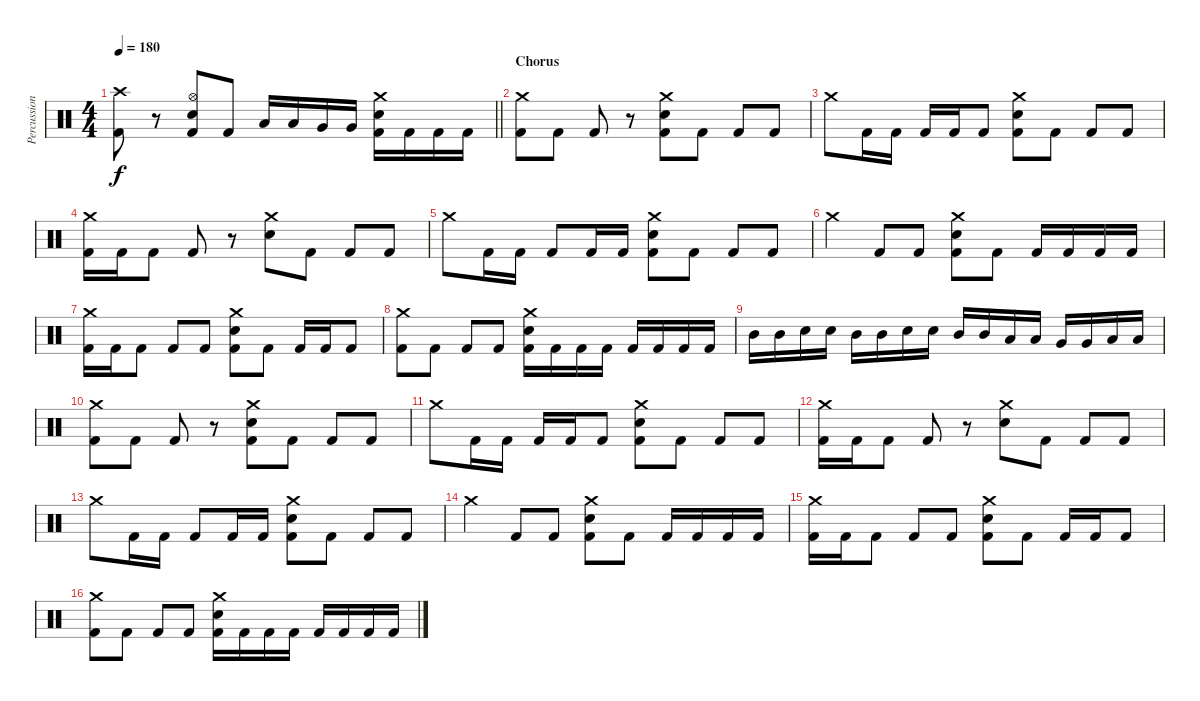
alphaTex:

\track ("Percussion" "Percussion") {instrument percussion}
\staff {score}
\articulation defaults
\ts (4 4)
\tempo 180
\clef neutral
\barLineRight lightlight
\ks c
("Crash high (hit)" "Kick (hit) 2").8{dy f} r.8 ("Hi-Hat (open)" "Electric Snare (hit)" "Kick (hit) 2").8 "Kick (hit) 2".8 "Low Tom (hit)".16 "Low Tom (hit)".16 "Very Low Tom (hit)".16 "Very Low Tom (hit)".16 ("Crash medium (hit)" "Electric Snare (hit)" "Kick (hit) 2").16 "Kick (hit) 2".16 "Kick (hit) 2".16 "Kick (hit) 2".16 |
\section ("" "Chorus")
("Crash medium (hit)" "Kick (hit) 2").8 "Kick (hit) 2".8 "Kick (hit) 2".8 r.8 ("Crash medium (hit)" "Electric Snare (hit)" "Kick (hit) 2").8 "Kick (hit) 2".8 "Kick (hit) 2".8 "Kick (hit) 2".8 |
"Crash medium (hit)".8 "Kick (hit) 2".16 "Kick (hit) 2".16 "Kick (hit) 2".16 "Kick (hit) 2".16 "Kick (hit) 2".8 ("Crash medium (hit)" "Electric Snare (hit)" "Kick (hit) 2").8 "Kick (hit) 2".8 "Kick (hit) 2".8 "Kick (hit) 2".8 |
("Crash medium (hit)" "Kick (hit) 2").16 "Kick (hit) 2".16 "Kick (hit) 2".8 "Kick (hit) 2".8 r.8 ("Crash medium (hit)" "Electric Snare (hit)").8 "Kick (hit) 2".8 "Kick (hit) 2".8 "Kick (hit) 2".8 |
"Crash medium (hit)".8 "Kick (hit) 2".16 "Kick (hit) 2".16 "Kick (hit) 2".8 "Kick (hit) 2".16 "Kick (hit) 2".16 ("Crash medium (hit)" "Electric Snare (hit)" "Kick (hit) 2").8 "Kick (hit) 2".8 "Kick (hit) 2".8 "Kick (hit) 2".8 |
"Crash medium (hit)".4 "Kick (hit) 2".8 "Kick (hit) 2".8 ("Crash medium (hit)" "Electric Snare (hit)" "Kick (hit) 2").8 "Kick (hit) 2".8 "Kick (hit) 2".16 "Kick (hit) 2".16 "Kick (hit) 2".16 "Kick (hit) 2".16 |
("Crash medium (hit)" "Kick (hit) 2").16 "Kick (hit) 2".16 "Kick (hit) 2".8 "Kick (hit) 2".8 "Kick (hit) 2".8 ("Crash medium (hit)" "Electric Snare (hit)" "Kick (hit) 2").8 "Kick (hit) 2".8 "Kick (hit) 2".16 "Kick (hit) 2".16 "Kick (hit) 2".8 |
("Crash medium (hit)" "Kick (hit) 2").8 "Kick (hit) 2".8 "Kick (hit) 2".8 "Kick (hit) 2".8 ("Crash medium (hit)" "Electric Snare (hit)" "Kick (hit) 2").16 "Kick (hit) 2".16 "Kick (hit) 2".16 "Kick (hit) 2".16 "Kick (hit) 2".16 "Kick (hit) 2".16 "Kick (hit) 2".16 "Kick (hit) 2".16 |
"Mid Tom (hit)".16 "Mid Tom (hit)".16 "Electric Snare (hit)".16 "Electric Snare (hit)".16 "Mid Tom (hit)".16 "Mid Tom (hit)".16 "Electric Snare (hit)".16 "Electric Snare (hit)".16 "Mid Tom (hit)".16 "Mid Tom (hit)".16 "Low Tom (hit)".16 "Low Tom (hit)".16 "Very Low Tom (hit)".16 "Very Low Tom (hit)".16 "Low Floor Tom (hit)".16 "Low Floor Tom (hit)".16 |
("Crash medium (hit)" "Kick (hit) 2").8 "Kick (hit) 2".8 "Kick (hit) 2".8 r.8 ("Crash medium (hit)" "Electric Snare (hit)" "Kick (hit) 2").8 "Kick (hit) 2".8 "Kick (hit) 2".8 "Kick (hit) 2".8 |
"Crash medium (hit)".8 "Kick (hit) 2".16 "Kick (hit) 2".16 "Kick (hit) 2".16 "Kick (hit) 2".16 "Kick (hit) 2".8 ("Crash medium (hit)" "Electric Snare (hit)" "Kick (hit) 2").8 "Kick (hit) 2".8 "Kick (hit) 2".8 "Kick (hit) 2".8 |
("Crash medium (hit)" "Kick (hit) 2").16 "Kick (hit) 2".16 "Kick (hit) 2".8 "Kick (hit) 2".8 r.8 ("Crash medium (hit)" "Electric Snare (hit)").8 "Kick (hit) 2".8 "Kick (hit) 2".8 "Kick (hit) 2".8 |
"Crash medium (hit)".8 "Kick (hit) 2".16 "Kick (hit) 2".16 "Kick (hit) 2".8 "Kick (hit) 2".16 "Kick (hit) 2".16 ("Crash medium (hit)" "Electric Snare (hit)" "Kick (hit) 2").8 "Kick (hit) 2".8 "Kick (hit) 2".8 "Kick (hit) 2".8 |
"Crash medium (hit)".4 "Kick (hit) 2".8 "Kick (hit) 2".8 ("Crash medium (hit)" "Electric Snare (hit)" "Kick (hit) 2").8 "Kick (hit) 2".8 "Kick (hit) 2".16 "Kick (hit) 2".16 "Kick (hit) 2".16 "Kick (hit) 2".16 |
("Crash medium (hit)" "Kick (hit) 2").16 "Kick (hit) 2".16 "Kick (hit) 2".8 "Kick (hit) 2".8 "Kick (hit) 2".8 ("Crash medium (hit)" "Electric Snare (hit)" "Kick (hit) 2").8 "Kick (hit) 2".8 "Kick (hit) 2".16 "Kick (hit) 2".16 "Kick (hit) 2".8 |
("Crash medium (hit)" "Kick (hit) 2").8 "Kick (hit) 2".8 "Kick (hit) 2".8 "Kick (hit) 2".8 ("Crash medium (hit)" "Electric Snare (hit)" "Kick (hit) 2").16 "Kick (hit) 2".16 "Kick (hit) 2".16 "Kick (hit) 2".16 "Kick (hit) 2".16 "Kick (hit) 2".16 "Kick (hit) 2".16 "Kick (hit) 2".16
